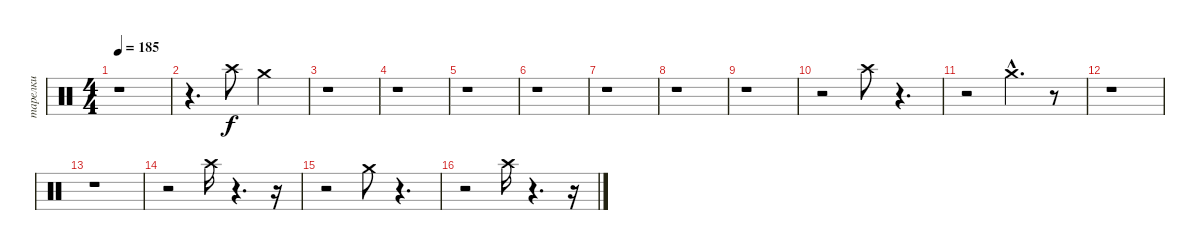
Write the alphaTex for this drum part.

\track ("тарелки" "тарелки") {instrument percussion}
\staff {score}
\articulation defaults
\ts (4 4)
\tempo 185
\clef neutral
\ks c
r.1{dy f} |
r.4{d} "Crash high (hit)".8 "Crash medium (hit)".2 |
r.1 |
r.1 |
r.1 |
r.1 |
r.1 |
r.1 |
r.1 |
r.2 "Crash high (hit)".8 r.4{d} |
r.2 "Crash medium (hit)"{hac}.4{d} r.8 |
r.1 |
r.1 |
r.2 "Crash high (hit)".16 r.4{d} r.16 |
r.2 "Crash medium (hit)".8 r.4{d} |
r.2 "Crash high (hit)".16 r.4{d} r.16
